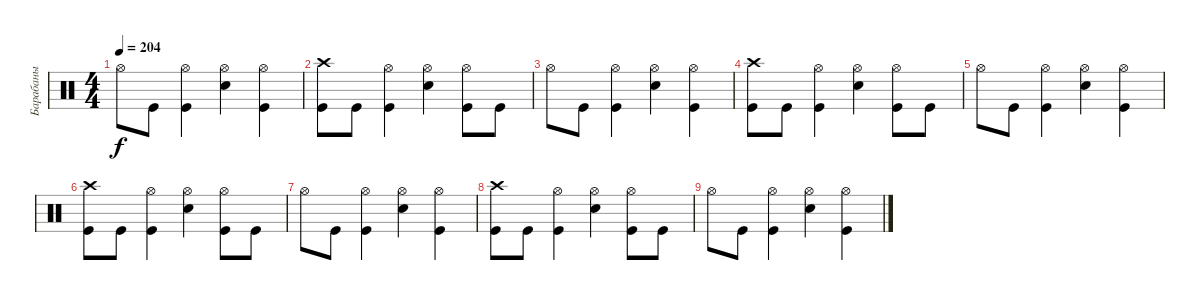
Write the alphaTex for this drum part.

\track ("Барабаны" "Барабаны") {instrument percussion}
\staff {score}
\articulation defaults
\ts (4 4)
\tempo 204
\clef neutral
\ks c "Hi-Hat (open)".8{dy f} "Kick (hit)".8
("Hi-Hat (open)" "Kick (hit)").4 ("Hi-Hat (open)" "Electric Snare (hit)").4 ("Hi-Hat (open)" "Kick (hit)").4 |
("Crash high (hit)" "Kick (hit)").8 "Kick (hit)".8 ("Hi-Hat (open)" "Kick (hit)").4 ("Hi-Hat (open)" "Electric Snare (hit)").4 ("Hi-Hat (open)" "Kick (hit)").8 "Kick (hit)".8 |
"Hi-Hat (open)".8 "Kick (hit)".8 ("Hi-Hat (open)" "Kick (hit)").4 ("Hi-Hat (open)" "Electric Snare (hit)").4 ("Hi-Hat (open)" "Kick (hit)").4 |
("Crash high (hit)" "Kick (hit)").8 "Kick (hit)".8 ("Hi-Hat (open)" "Kick (hit)").4 ("Hi-Hat (open)" "Electric Snare (hit)").4 ("Hi-Hat (open)" "Kick (hit)").8 "Kick (hit)".8 |
"Hi-Hat (open)".8 "Kick (hit)".8 ("Hi-Hat (open)" "Kick (hit)").4 ("Hi-Hat (open)" "Electric Snare (hit)").4 ("Hi-Hat (open)" "Kick (hit)").4 |
("Crash high (hit)" "Kick (hit)").8 "Kick (hit)".8 ("Hi-Hat (open)" "Kick (hit)").4 ("Hi-Hat (open)" "Electric Snare (hit)").4 ("Hi-Hat (open)" "Kick (hit)").8 "Kick (hit)".8 |
"Hi-Hat (open)".8 "Kick (hit)".8 ("Hi-Hat (open)" "Kick (hit)").4 ("Hi-Hat (open)" "Electric Snare (hit)").4 ("Hi-Hat (open)" "Kick (hit)").4 |
("Crash high (hit)" "Kick (hit)").8 "Kick (hit)".8 ("Hi-Hat (open)" "Kick (hit)").4 ("Hi-Hat (open)" "Electric Snare (hit)").4 ("Hi-Hat (open)" "Kick (hit)").8 "Kick (hit)".8 |
"Hi-Hat (open)".8 "Kick (hit)".8 ("Hi-Hat (open)" "Kick (hit)").4 ("Hi-Hat (open)" "Electric Snare (hit)").4 ("Hi-Hat (open)" "Kick (hit)").4
